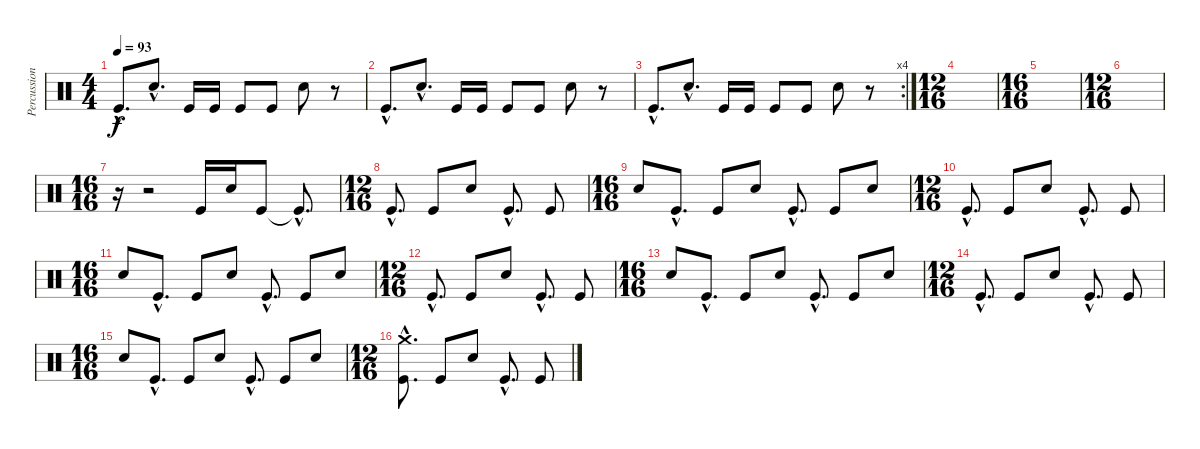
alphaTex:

\track ("Percussion" "Percussion") {instrument percussion}
\staff {score}
\articulation defaults
\ts (4 4)
\tempo 93
\clef neutral
\ks c "Kick (hit)"{hac}.8{d dy f} "Electric Snare (hit)"{hac}.8{d} "Kick (hit)".16 "Kick (hit)".16 "Kick (hit)".8 "Kick (hit)".8 "Electric Snare (hit)".8
r.8 |
"Kick (hit)"{hac}.8{d} "Electric Snare (hit)"{hac}.8{d} "Kick (hit)".16 "Kick (hit)".16 "Kick (hit)".8 "Kick (hit)".8 "Electric Snare (hit)".8 r.8 |
\rc 4 "Kick (hit)"{hac}.8{d} "Electric Snare (hit)"{hac}.8{d} "Kick (hit)".16 "Kick (hit)".16 "Kick (hit)".8 "Kick (hit)".8 "Electric Snare (hit)".8
r.8 |
\ts (12 16)
|
\ts (16 16)
|
\ts (12 16)
|
\ts (16 16)
r.16 r.2 "Kick (hit)".16 "Electric Snare (hit)".16 "Kick (hit)".8 "Kick (hit)"{hac t}.8{d} |
\ts (12 16)
"Kick (hit)"{hac}.8{d} "Kick (hit)".8 "Electric Snare (hit)".8 "Kick (hit)"{hac}.8{d} "Kick (hit)".8 |
\ts (16 16)
"Electric Snare (hit)".8 "Kick (hit)"{hac}.8{d} "Kick (hit)".8 "Electric Snare (hit)".8 "Kick (hit)"{hac}.8{d} "Kick (hit)".8 "Electric Snare (hit)".8 |
\ts (12 16)
"Kick (hit)"{hac}.8{d} "Kick (hit)".8 "Electric Snare (hit)".8 "Kick (hit)"{hac}.8{d} "Kick (hit)".8 |
\ts (16 16)
"Electric Snare (hit)".8 "Kick (hit)"{hac}.8{d} "Kick (hit)".8 "Electric Snare (hit)".8 "Kick (hit)"{hac}.8{d} "Kick (hit)".8 "Electric Snare (hit)".8 |
\ts (12 16)
"Kick (hit)"{hac}.8{d} "Kick (hit)".8 "Electric Snare (hit)".8 "Kick (hit)"{hac}.8{d} "Kick (hit)".8 |
\ts (16 16)
"Electric Snare (hit)".8 "Kick (hit)"{hac}.8{d} "Kick (hit)".8 "Electric Snare (hit)".8 "Kick (hit)"{hac}.8{d} "Kick (hit)".8 "Electric Snare (hit)".8 |
\ts (12 16)
"Kick (hit)"{hac}.8{d} "Kick (hit)".8 "Electric Snare (hit)".8 "Kick (hit)"{hac}.8{d} "Kick (hit)".8 |
\ts (16 16)
"Electric Snare (hit)".8 "Kick (hit)"{hac}.8{d} "Kick (hit)".8 "Electric Snare (hit)".8 "Kick (hit)"{hac}.8{d} "Kick (hit)".8 "Electric Snare (hit)".8 |
\ts (12 16)
("Crash medium (hit)"{hac} "Kick (hit)"{hac}).8{d} "Kick (hit)".8 "Electric Snare (hit)".8 "Kick (hit)"{hac}.8{d} "Kick (hit)".8
